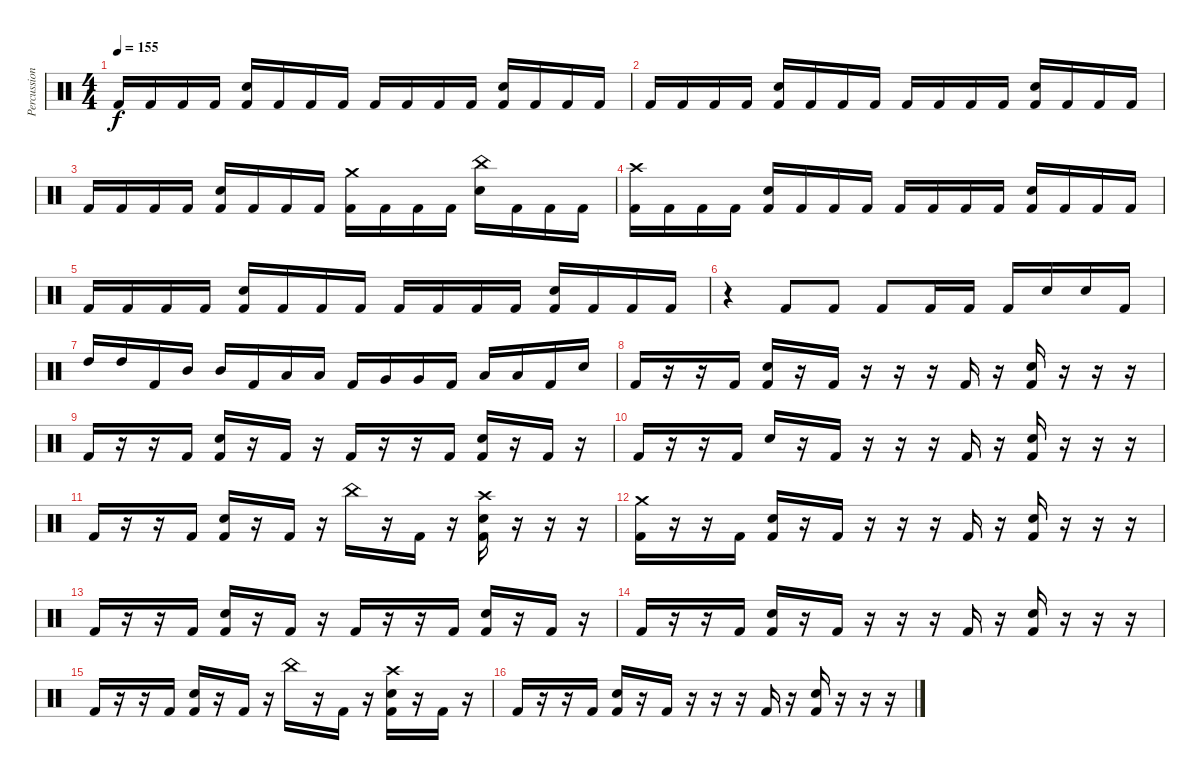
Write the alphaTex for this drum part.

\track ("Percussion" "Percussion") {instrument percussion}
\staff {score}
\articulation defaults
\ts (4 4)
\tempo 155
\clef neutral
\ks c "Kick (hit) 2".16{dy f} "Kick (hit) 2".16 "Kick (hit) 2".16 "Kick (hit) 2".16
("Kick (hit) 2" "Snare (hit) 2").16 "Kick (hit) 2".16 "Kick (hit) 2".16 "Kick (hit) 2".16 "Kick (hit) 2".16 "Kick (hit) 2".16 "Kick (hit) 2".16 "Kick (hit) 2".16 ("Kick (hit) 2" "Snare (hit) 2").16 "Kick (hit) 2".16 "Kick (hit) 2".16 "Kick (hit) 2".16 |
"Kick (hit) 2".16 "Kick (hit) 2".16 "Kick (hit) 2".16 "Kick (hit) 2".16 ("Kick (hit) 2" "Snare (hit) 2").16 "Kick (hit) 2".16 "Kick (hit) 2".16 "Kick (hit) 2".16 "Kick (hit) 2".16 "Kick (hit) 2".16 "Kick (hit) 2".16 "Kick (hit) 2".16 ("Kick (hit) 2" "Snare (hit) 2").16 "Kick (hit) 2".16 "Kick (hit) 2".16 "Kick (hit) 2".16 |
"Kick (hit) 2".16 "Kick (hit) 2".16 "Kick (hit) 2".16 "Kick (hit) 2".16 ("Kick (hit) 2" "Snare (hit) 2").16 "Kick (hit) 2".16 "Kick (hit) 2".16 "Kick (hit) 2".16 ("Kick (hit) 2" "Crash medium (hit)").16 "Kick (hit) 2".16 "Kick (hit) 2".16 "Kick (hit) 2".16 ("Snare (hit) 2" "China (hit)").16 "Kick (hit) 2".16 "Kick (hit) 2".16 "Kick (hit) 2".16 |
("Kick (hit) 2" "Crash high (hit)").16 "Kick (hit) 2".16 "Kick (hit) 2".16 "Kick (hit) 2".16 ("Kick (hit) 2" "Snare (hit) 2").16 "Kick (hit) 2".16 "Kick (hit) 2".16 "Kick (hit) 2".16 "Kick (hit) 2".16 "Kick (hit) 2".16 "Kick (hit) 2".16 "Kick (hit) 2".16 ("Kick (hit) 2" "Snare (hit) 2").16 "Kick (hit) 2".16 "Kick (hit) 2".16 "Kick (hit) 2".16 |
"Kick (hit) 2".16 "Kick (hit) 2".16 "Kick (hit) 2".16 "Kick (hit) 2".16 ("Kick (hit) 2" "Snare (hit) 2").16 "Kick (hit) 2".16 "Kick (hit) 2".16 "Kick (hit) 2".16 "Kick (hit) 2".16 "Kick (hit) 2".16 "Kick (hit) 2".16 "Kick (hit) 2".16 ("Kick (hit) 2" "Snare (hit) 2").16 "Kick (hit) 2".16 "Kick (hit) 2".16 "Kick (hit) 2".16 |
r.4 "Kick (hit) 2".8 "Kick (hit) 2".8 "Kick (hit) 2".8 "Kick (hit) 2".16 "Kick (hit) 2".16 "Kick (hit) 2".16 "Snare (hit) 2".16 "Snare (hit) 2".16 "Kick (hit) 2".16 |
"High Tom (hit)".16 "High Tom (hit)".16 "Kick (hit) 2".16 "Mid Tom (hit)".16 "Mid Tom (hit)".16 "Kick (hit) 2".16 "Low Tom (hit)".16 "Low Tom (hit)".16 "Kick (hit) 2".16 "Very Low Tom (hit)".16 "Very Low Tom (hit)".16 "Kick (hit) 2".16 "Low Floor Tom (hit)".16 "Low Floor Tom (hit)".16 "Kick (hit) 2".16 "Snare (hit) 2".16 |
"Kick (hit) 2".16 r.16 r.16 "Kick (hit) 2".16 ("Kick (hit) 2" "Snare (hit) 2").16 r.16 "Kick (hit) 2".16 r.16 r.16 r.16 "Kick (hit) 2".16 r.16 ("Kick (hit) 2" "Snare (hit) 2").16 r.16 r.16 r.16 |
"Kick (hit) 2".16 r.16 r.16 "Kick (hit) 2".16 ("Kick (hit) 2" "Snare (hit) 2").16 r.16 "Kick (hit) 2".16 r.16 "Kick (hit) 2".16 r.16 r.16 "Kick (hit) 2".16 ("Kick (hit) 2" "Snare (hit) 2").16 r.16 "Kick (hit) 2".16 r.16 |
"Kick (hit) 2".16 r.16 r.16 "Kick (hit) 2".16 "Snare (hit) 2".16 r.16 "Kick (hit) 2".16 r.16 r.16 r.16 "Kick (hit) 2".16 r.16 ("Kick (hit) 2" "Snare (hit) 2").16 r.16 r.16 r.16 |
"Kick (hit) 2".16 r.16 r.16 "Kick (hit) 2".16 ("Kick (hit) 2" "Snare (hit) 2").16 r.16 "Kick (hit) 2".16 r.16 "China (hit)".16 r.16 "Kick (hit) 2".16 r.16 ("Kick (hit) 2" "Snare (hit) 2" "Crash high (hit)").16 r.16 r.16 r.16 |
("Kick (hit) 2" "Crash medium (hit)").16 r.16 r.16 "Kick (hit) 2".16 ("Kick (hit) 2" "Snare (hit) 2").16 r.16 "Kick (hit) 2".16 r.16 r.16 r.16 "Kick (hit) 2".16 r.16 ("Kick (hit) 2" "Snare (hit) 2").16 r.16 r.16 r.16 |
"Kick (hit) 2".16 r.16 r.16 "Kick (hit) 2".16 ("Kick (hit) 2" "Snare (hit) 2").16 r.16 "Kick (hit) 2".16 r.16 "Kick (hit) 2".16 r.16 r.16 "Kick (hit) 2".16 ("Kick (hit) 2" "Snare (hit) 2").16 r.16 "Kick (hit) 2".16 r.16 |
"Kick (hit) 2".16 r.16 r.16 "Kick (hit) 2".16 ("Kick (hit) 2" "Snare (hit) 2").16 r.16 "Kick (hit) 2".16 r.16 r.16 r.16 "Kick (hit) 2".16 r.16 ("Kick (hit) 2" "Snare (hit) 2").16 r.16 r.16 r.16 |
"Kick (hit) 2".16 r.16 r.16 "Kick (hit) 2".16 ("Kick (hit) 2" "Snare (hit) 2").16 r.16 "Kick (hit) 2".16 r.16 "China (hit)".16 r.16 "Kick (hit) 2".16 r.16 ("Kick (hit) 2" "Snare (hit) 2" "Crash high (hit)").16 r.16 "Kick (hit) 2".16 r.16 |
"Kick (hit) 2".16 r.16 r.16 "Kick (hit) 2".16 ("Kick (hit) 2" "Snare (hit) 2").16 r.16 "Kick (hit) 2".16 r.16 r.16 r.16 "Kick (hit) 2".16 r.16 ("Kick (hit) 2" "Snare (hit) 2").16 r.16 r.16 r.16
